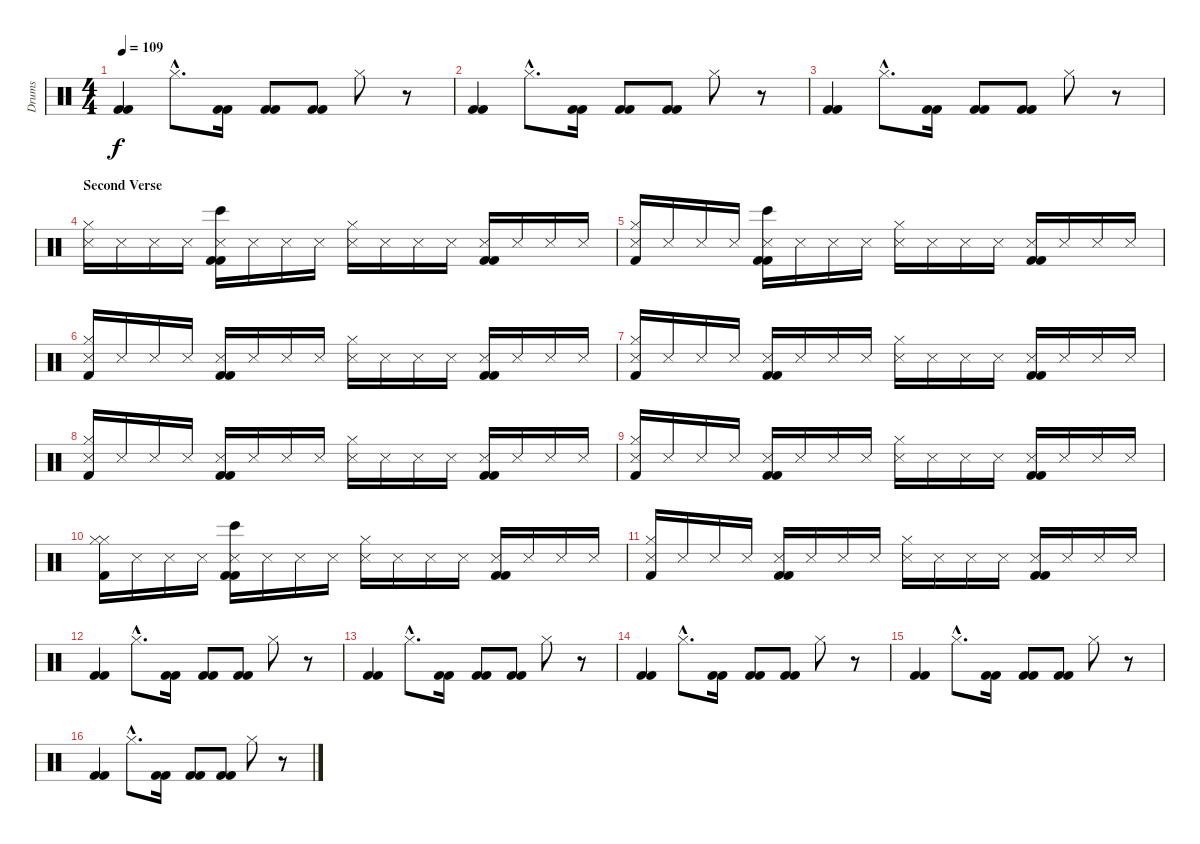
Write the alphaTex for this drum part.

\track ("Drums" "Drums") {instrument percussion}
\staff {score}
\articulation defaults
\ts (4 4)
\tempo 109
\clef neutral
\ks c
("Kick (hit) 2" "Kick (hit) 2").4{dy f} "Hi-Hat (closed)"{hac}.8{d} ("Kick (hit) 2" "Kick (hit) 2").16 ("Kick (hit) 2" "Kick (hit) 2").8 ("Kick (hit) 2" "Kick (hit) 2").8 "Hi-Hat (closed)".8 r.8 |
("Kick (hit) 2" "Kick (hit) 2").4 "Hi-Hat (closed)"{hac}.8{d} ("Kick (hit) 2" "Kick (hit) 2").16 ("Kick (hit) 2" "Kick (hit) 2").8 ("Kick (hit) 2" "Kick (hit) 2").8 "Hi-Hat (closed)".8 r.8 |
("Kick (hit) 2" "Kick (hit) 2").4 "Hi-Hat (closed)"{hac}.8{d} ("Kick (hit) 2" "Kick (hit) 2").16 ("Kick (hit) 2" "Kick (hit) 2").8 ("Kick (hit) 2" "Kick (hit) 2").8 "Hi-Hat (closed)".8 r.8 |
\section ("" "Second Verse")
("Hi-Hat (closed)" "Snare (side stick) 3").16{volume 7} "Snare (side stick) 3".16 "Snare (side stick) 3".16 "Snare (side stick) 3".16 ("Bongo High (hit)" "Snare (side stick) 3" "Kick (hit) 2" "Kick (hit) 2").16 "Snare (side stick) 3".16 "Snare (side stick) 3".16 "Snare (side stick) 3".16 ("Hi-Hat (closed)" "Snare (side stick) 3").16 "Snare (side stick) 3".16 "Snare (side stick) 3".16 "Snare (side stick) 3".16 ("Snare (side stick) 3" "Kick (hit) 2" "Kick (hit) 2").16 "Snare (side stick) 3".16 "Snare (side stick) 3".16 "Snare (side stick) 3".16 |
("Hi-Hat (closed)" "Snare (side stick) 3" "Kick (hit) 2").16 "Snare (side stick) 3".16 "Snare (side stick) 3".16 "Snare (side stick) 3".16 ("Bongo High (hit)" "Snare (side stick) 3" "Kick (hit) 2" "Kick (hit) 2").16 "Snare (side stick) 3".16 "Snare (side stick) 3".16 "Snare (side stick) 3".16 ("Hi-Hat (closed)" "Snare (side stick) 3").16 "Snare (side stick) 3".16 "Snare (side stick) 3".16 "Snare (side stick) 3".16 ("Snare (side stick) 3" "Kick (hit) 2" "Kick (hit) 2").16 "Snare (side stick) 3".16 "Snare (side stick) 3".16 "Snare (side stick) 3".16 |
("Hi-Hat (closed)" "Snare (side stick) 3" "Kick (hit) 2").16 "Snare (side stick) 3".16 "Snare (side stick) 3".16 "Snare (side stick) 3".16 ("Snare (side stick) 3" "Kick (hit) 2" "Kick (hit) 2").16 "Snare (side stick) 3".16 "Snare (side stick) 3".16 "Snare (side stick) 3".16 ("Hi-Hat (closed)" "Snare (side stick) 3").16 "Snare (side stick) 3".16 "Snare (side stick) 3".16 "Snare (side stick) 3".16 ("Snare (side stick) 3" "Kick (hit) 2" "Kick (hit) 2").16 "Snare (side stick) 3".16 "Snare (side stick) 3".16 "Snare (side stick) 3".16 |
("Hi-Hat (closed)" "Snare (side stick) 3" "Kick (hit) 2").16 "Snare (side stick) 3".16 "Snare (side stick) 3".16 "Snare (side stick) 3".16 ("Snare (side stick) 3" "Kick (hit) 2" "Kick (hit) 2").16 "Snare (side stick) 3".16 "Snare (side stick) 3".16 "Snare (side stick) 3".16 ("Hi-Hat (closed)" "Snare (side stick) 3").16 "Snare (side stick) 3".16 "Snare (side stick) 3".16 "Snare (side stick) 3".16 ("Snare (side stick) 3" "Kick (hit) 2" "Kick (hit) 2").16 "Snare (side stick) 3".16 "Snare (side stick) 3".16 "Snare (side stick) 3".16 |
("Hi-Hat (closed)" "Snare (side stick) 3" "Kick (hit) 2").16 "Snare (side stick) 3".16 "Snare (side stick) 3".16 "Snare (side stick) 3".16 ("Snare (side stick) 3" "Kick (hit) 2" "Kick (hit) 2").16 "Snare (side stick) 3".16 "Snare (side stick) 3".16 "Snare (side stick) 3".16 ("Hi-Hat (closed)" "Snare (side stick) 3").16 "Snare (side stick) 3".16 "Snare (side stick) 3".16 "Snare (side stick) 3".16 ("Snare (side stick) 3" "Kick (hit) 2" "Kick (hit) 2").16 "Snare (side stick) 3".16 "Snare (side stick) 3".16 "Snare (side stick) 3".16 |
("Hi-Hat (closed)" "Snare (side stick) 3" "Kick (hit) 2").16 "Snare (side stick) 3".16 "Snare (side stick) 3".16 "Snare (side stick) 3".16 ("Snare (side stick) 3" "Kick (hit) 2" "Kick (hit) 2").16 "Snare (side stick) 3".16 "Snare (side stick) 3".16 "Snare (side stick) 3".16 ("Hi-Hat (closed)" "Snare (side stick) 3").16 "Snare (side stick) 3".16 "Snare (side stick) 3".16 "Snare (side stick) 3".16 ("Snare (side stick) 3" "Kick (hit) 2" "Kick (hit) 2").16 "Snare (side stick) 3".16 "Snare (side stick) 3".16 "Snare (side stick) 3".16 |
("Hi-Hat (closed)" "Hi-Hat (closed)" "Kick (hit) 2").16 "Snare (side stick) 3".16 "Snare (side stick) 3".16 "Snare (side stick) 3".16 ("Bongo High (hit)" "Snare (side stick) 3" "Kick (hit) 2" "Kick (hit) 2").16 "Snare (side stick) 3".16 "Snare (side stick) 3".16 "Snare (side stick) 3".16 ("Hi-Hat (closed)" "Snare (side stick) 3").16 "Snare (side stick) 3".16 "Snare (side stick) 3".16 "Snare (side stick) 3".16 ("Snare (side stick) 3" "Kick (hit) 2" "Kick (hit) 2").16 "Snare (side stick) 3".16 "Snare (side stick) 3".16 "Snare (side stick) 3".16 |
("Hi-Hat (closed)" "Snare (side stick) 3" "Kick (hit) 2").16 "Snare (side stick) 3".16 "Snare (side stick) 3".16 "Snare (side stick) 3".16 ("Snare (side stick) 3" "Kick (hit) 2" "Kick (hit) 2").16 "Snare (side stick) 3".16 "Snare (side stick) 3".16 "Snare (side stick) 3".16 ("Hi-Hat (closed)" "Snare (side stick) 3").16 "Snare (side stick) 3".16 "Snare (side stick) 3".16 "Snare (side stick) 3".16 ("Snare (side stick) 3" "Kick (hit) 2" "Kick (hit) 2").16 "Snare (side stick) 3".16 "Snare (side stick) 3".16 "Snare (side stick) 3".16 |
("Kick (hit) 2" "Kick (hit) 2").4 "Hi-Hat (closed)"{hac}.8{d} ("Kick (hit) 2" "Kick (hit) 2").16 ("Kick (hit) 2" "Kick (hit) 2").8 ("Kick (hit) 2" "Kick (hit) 2").8 "Hi-Hat (closed)".8 r.8 |
("Kick (hit) 2" "Kick (hit) 2").4 "Hi-Hat (closed)"{hac}.8{d} ("Kick (hit) 2" "Kick (hit) 2").16 ("Kick (hit) 2" "Kick (hit) 2").8 ("Kick (hit) 2" "Kick (hit) 2").8 "Hi-Hat (closed)".8 r.8 |
("Kick (hit) 2" "Kick (hit) 2").4 "Hi-Hat (closed)"{hac}.8{d} ("Kick (hit) 2" "Kick (hit) 2").16 ("Kick (hit) 2" "Kick (hit) 2").8 ("Kick (hit) 2" "Kick (hit) 2").8 "Hi-Hat (closed)".8 r.8 |
("Kick (hit) 2" "Kick (hit) 2").4 "Hi-Hat (closed)"{hac}.8{d} ("Kick (hit) 2" "Kick (hit) 2").16 ("Kick (hit) 2" "Kick (hit) 2").8 ("Kick (hit) 2" "Kick (hit) 2").8 "Hi-Hat (closed)".8 r.8 |
("Kick (hit) 2" "Kick (hit) 2").4 "Hi-Hat (closed)"{hac}.8{d} ("Kick (hit) 2" "Kick (hit) 2").16 ("Kick (hit) 2" "Kick (hit) 2").8 ("Kick (hit) 2" "Kick (hit) 2").8 "Hi-Hat (closed)".8 r.8
